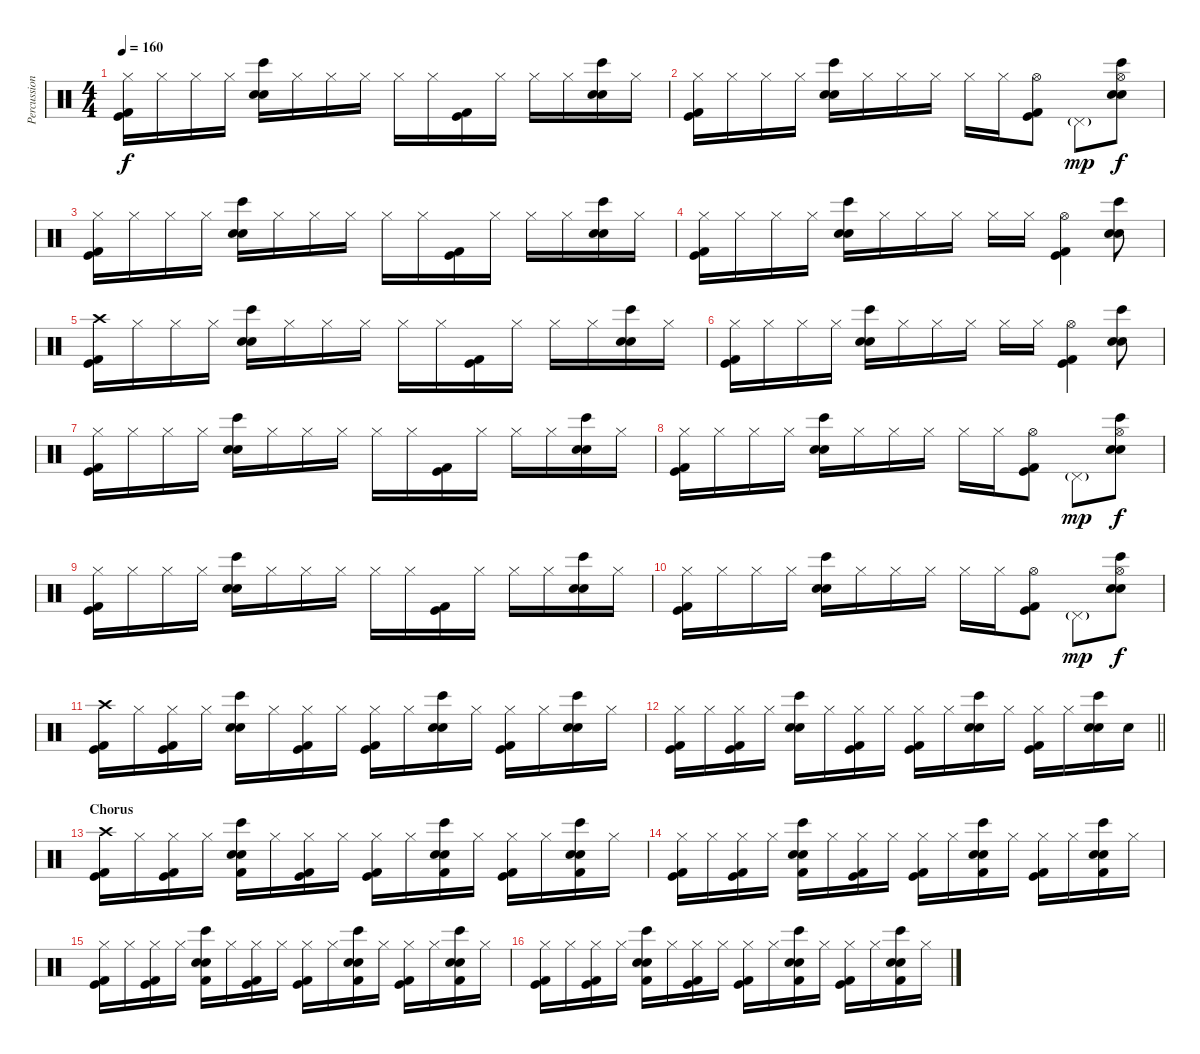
\track ("Percussion" "Percussion") {instrument percussion}
\staff {score}
\articulation defaults
\ts (4 4)
\tempo 160
\clef neutral
\ks c
("Hi-Hat (closed)" "Kick (hit)" "Kick (hit) 2").16{dy f} "Hi-Hat (closed)".16 "Hi-Hat (closed)".16 "Hi-Hat (closed)".16 ("Hand Clap (hit)" "Bongo High (hit)" "Electric Snare (hit)").16 "Hi-Hat (closed)".16 "Hi-Hat (closed)".16 "Hi-Hat (closed)".16 "Hi-Hat (closed)".16 "Hi-Hat (closed)".16 ("Kick (hit)" "Kick (hit) 2").16 "Hi-Hat (closed)".16 "Hi-Hat (closed)".16 "Hi-Hat (closed)".16 ("Hand Clap (hit)" "Bongo High (hit)" "Electric Snare (hit)").16 "Hi-Hat (closed)".16 |
("Hi-Hat (closed)" "Kick (hit)" "Kick (hit) 2").16 "Hi-Hat (closed)".16 "Hi-Hat (closed)".16 "Hi-Hat (closed)".16 ("Hand Clap (hit)" "Bongo High (hit)" "Electric Snare (hit)").16 "Hi-Hat (closed)".16 "Hi-Hat (closed)".16 "Hi-Hat (closed)".16 "Hi-Hat (closed)".16 "Hi-Hat (closed)".16 ("Hi-Hat (open)" "Kick (hit)" "Kick (hit) 2").8 "Pedal Hi-Hat (hit)"{g}.8{dy mp} ("Hi-Hat (open)" "Hand Clap (hit)" "Bongo High (hit)" "Electric Snare (hit)").8{dy f} |
("Hi-Hat (closed)" "Kick (hit)" "Kick (hit) 2").16 "Hi-Hat (closed)".16 "Hi-Hat (closed)".16 "Hi-Hat (closed)".16 ("Hand Clap (hit)" "Bongo High (hit)" "Electric Snare (hit)").16 "Hi-Hat (closed)".16 "Hi-Hat (closed)".16 "Hi-Hat (closed)".16 "Hi-Hat (closed)".16 "Hi-Hat (closed)".16 ("Kick (hit)" "Kick (hit) 2").16 "Hi-Hat (closed)".16 "Hi-Hat (closed)".16 "Hi-Hat (closed)".16 ("Hand Clap (hit)" "Bongo High (hit)" "Electric Snare (hit)").16 "Hi-Hat (closed)".16 |
("Hi-Hat (closed)" "Kick (hit)" "Kick (hit) 2").16 "Hi-Hat (closed)".16 "Hi-Hat (closed)".16 "Hi-Hat (closed)".16 ("Hand Clap (hit)" "Bongo High (hit)" "Electric Snare (hit)").16 "Hi-Hat (closed)".16 "Hi-Hat (closed)".16 "Hi-Hat (closed)".16 "Hi-Hat (closed)".16 "Hi-Hat (closed)".16 ("Hi-Hat (open)" "Kick (hit)" "Kick (hit) 2").4 ("Hand Clap (hit)" "Bongo High (hit)" "Electric Snare (hit)").8 |
("Crash high (hit)" "Kick (hit)" "Kick (hit) 2").16 "Hi-Hat (closed)".16 "Hi-Hat (closed)".16 "Hi-Hat (closed)".16 ("Hand Clap (hit)" "Bongo High (hit)" "Electric Snare (hit)").16 "Hi-Hat (closed)".16 "Hi-Hat (closed)".16 "Hi-Hat (closed)".16 "Hi-Hat (closed)".16 "Hi-Hat (closed)".16 ("Kick (hit)" "Kick (hit) 2").16 "Hi-Hat (closed)".16 "Hi-Hat (closed)".16 "Hi-Hat (closed)".16 ("Hand Clap (hit)" "Bongo High (hit)" "Electric Snare (hit)").16 "Hi-Hat (closed)".16 |
("Hi-Hat (closed)" "Kick (hit)" "Kick (hit) 2").16 "Hi-Hat (closed)".16 "Hi-Hat (closed)".16 "Hi-Hat (closed)".16 ("Hand Clap (hit)" "Bongo High (hit)" "Electric Snare (hit)").16 "Hi-Hat (closed)".16 "Hi-Hat (closed)".16 "Hi-Hat (closed)".16 "Hi-Hat (closed)".16 "Hi-Hat (closed)".16 ("Hi-Hat (open)" "Kick (hit)" "Kick (hit) 2").4 ("Hand Clap (hit)" "Bongo High (hit)" "Electric Snare (hit)").8 |
("Hi-Hat (closed)" "Kick (hit)" "Kick (hit) 2").16 "Hi-Hat (closed)".16 "Hi-Hat (closed)".16 "Hi-Hat (closed)".16 ("Hand Clap (hit)" "Bongo High (hit)" "Electric Snare (hit)").16 "Hi-Hat (closed)".16 "Hi-Hat (closed)".16 "Hi-Hat (closed)".16 "Hi-Hat (closed)".16 "Hi-Hat (closed)".16 ("Kick (hit)" "Kick (hit) 2").16 "Hi-Hat (closed)".16 "Hi-Hat (closed)".16 "Hi-Hat (closed)".16 ("Hand Clap (hit)" "Bongo High (hit)" "Electric Snare (hit)").16 "Hi-Hat (closed)".16 |
("Hi-Hat (closed)" "Kick (hit)" "Kick (hit) 2").16 "Hi-Hat (closed)".16 "Hi-Hat (closed)".16 "Hi-Hat (closed)".16 ("Hand Clap (hit)" "Bongo High (hit)" "Electric Snare (hit)").16 "Hi-Hat (closed)".16 "Hi-Hat (closed)".16 "Hi-Hat (closed)".16 "Hi-Hat (closed)".16 "Hi-Hat (closed)".16 ("Hi-Hat (open)" "Kick (hit)" "Kick (hit) 2").8 "Pedal Hi-Hat (hit)"{g}.8{dy mp} ("Hi-Hat (open)" "Hand Clap (hit)" "Bongo High (hit)" "Electric Snare (hit)").8{dy f} |
("Hi-Hat (closed)" "Kick (hit)" "Kick (hit) 2").16 "Hi-Hat (closed)".16 "Hi-Hat (closed)".16 "Hi-Hat (closed)".16 ("Hand Clap (hit)" "Bongo High (hit)" "Electric Snare (hit)").16 "Hi-Hat (closed)".16 "Hi-Hat (closed)".16 "Hi-Hat (closed)".16 "Hi-Hat (closed)".16 "Hi-Hat (closed)".16 ("Kick (hit)" "Kick (hit) 2").16 "Hi-Hat (closed)".16 "Hi-Hat (closed)".16 "Hi-Hat (closed)".16 ("Hand Clap (hit)" "Bongo High (hit)" "Electric Snare (hit)").16 "Hi-Hat (closed)".16 |
("Hi-Hat (closed)" "Kick (hit)" "Kick (hit) 2").16 "Hi-Hat (closed)".16 "Hi-Hat (closed)".16 "Hi-Hat (closed)".16 ("Hand Clap (hit)" "Bongo High (hit)" "Electric Snare (hit)").16 "Hi-Hat (closed)".16 "Hi-Hat (closed)".16 "Hi-Hat (closed)".16 "Hi-Hat (closed)".16 "Hi-Hat (closed)".16 ("Hi-Hat (open)" "Kick (hit)" "Kick (hit) 2").8 "Pedal Hi-Hat (hit)"{g}.8{dy mp} ("Hi-Hat (open)" "Hand Clap (hit)" "Bongo High (hit)" "Electric Snare (hit)").8{dy f} |
("Crash high (hit)" "Kick (hit)" "Kick (hit) 2").16 "Hi-Hat (closed)".16 ("Hi-Hat (closed)" "Kick (hit)" "Kick (hit) 2").16 "Hi-Hat (closed)".16 ("Hand Clap (hit)" "Bongo High (hit)" "Electric Snare (hit)").16 "Hi-Hat (closed)".16 ("Hi-Hat (closed)" "Kick (hit)" "Kick (hit) 2").16 "Hi-Hat (closed)".16 ("Hi-Hat (closed)" "Kick (hit)" "Kick (hit) 2").16 "Hi-Hat (closed)".16 ("Hand Clap (hit)" "Bongo High (hit)" "Electric Snare (hit)").16 "Hi-Hat (closed)".16 ("Hi-Hat (closed)" "Kick (hit)" "Kick (hit) 2").16 "Hi-Hat (closed)".16 ("Hand Clap (hit)" "Bongo High (hit)" "Electric Snare (hit)").16 "Hi-Hat (closed)".16 |
\barLineRight lightlight
("Hi-Hat (closed)" "Kick (hit)" "Kick (hit) 2").16 "Hi-Hat (closed)".16 ("Hi-Hat (closed)" "Kick (hit)" "Kick (hit) 2").16 "Hi-Hat (closed)".16 ("Hand Clap (hit)" "Bongo High (hit)" "Electric Snare (hit)").16 "Hi-Hat (closed)".16 ("Hi-Hat (closed)" "Kick (hit)" "Kick (hit) 2").16 "Hi-Hat (closed)".16 ("Hi-Hat (closed)" "Kick (hit)" "Kick (hit) 2").16 "Hi-Hat (closed)".16 ("Hand Clap (hit)" "Bongo High (hit)" "Electric Snare (hit)").16 "Hi-Hat (closed)".16 ("Hi-Hat (closed)" "Kick (hit)" "Kick (hit) 2").16 "Hi-Hat (closed)".16 ("Hand Clap (hit)" "Bongo High (hit)" "Electric Snare (hit)").16 "Electric Snare (hit)".16 |
\section ("" "Chorus")
("Crash high (hit)" "Kick (hit)" "Kick (hit) 2").16 "Hi-Hat (closed)".16 ("Hi-Hat (closed)" "Kick (hit)" "Kick (hit) 2").16 "Hi-Hat (closed)".16 ("Hand Clap (hit)" "Bongo High (hit)" "Electric Snare (hit)" "Kick (hit) 2").16 "Hi-Hat (closed)".16 ("Hi-Hat (closed)" "Kick (hit)" "Kick (hit) 2").16 "Hi-Hat (closed)".16 ("Hi-Hat (closed)" "Kick (hit)" "Kick (hit) 2").16 "Hi-Hat (closed)".16 ("Hand Clap (hit)" "Bongo High (hit)" "Electric Snare (hit)" "Kick (hit) 2").16 "Hi-Hat (closed)".16 ("Hi-Hat (closed)" "Kick (hit)" "Kick (hit) 2").16 "Hi-Hat (closed)".16 ("Hand Clap (hit)" "Bongo High (hit)" "Electric Snare (hit)" "Kick (hit) 2").16 "Hi-Hat (closed)".16 |
("Hi-Hat (closed)" "Kick (hit)" "Kick (hit) 2").16 "Hi-Hat (closed)".16 ("Hi-Hat (closed)" "Kick (hit)" "Kick (hit) 2").16 "Hi-Hat (closed)".16 ("Hand Clap (hit)" "Bongo High (hit)" "Electric Snare (hit)" "Kick (hit) 2").16 "Hi-Hat (closed)".16 ("Hi-Hat (closed)" "Kick (hit)" "Kick (hit) 2").16 "Hi-Hat (closed)".16 ("Hi-Hat (closed)" "Kick (hit)" "Kick (hit) 2").16 "Hi-Hat (closed)".16 ("Hand Clap (hit)" "Bongo High (hit)" "Electric Snare (hit)" "Kick (hit) 2").16 "Hi-Hat (closed)".16 ("Hi-Hat (closed)" "Kick (hit)" "Kick (hit) 2").16 "Hi-Hat (closed)".16 ("Hand Clap (hit)" "Bongo High (hit)" "Electric Snare (hit)" "Kick (hit) 2").16 "Hi-Hat (closed)".16 |
("Hi-Hat (closed)" "Kick (hit)" "Kick (hit) 2").16 "Hi-Hat (closed)".16 ("Hi-Hat (closed)" "Kick (hit)" "Kick (hit) 2").16 "Hi-Hat (closed)".16 ("Hand Clap (hit)" "Bongo High (hit)" "Electric Snare (hit)" "Kick (hit) 2").16 "Hi-Hat (closed)".16 ("Hi-Hat (closed)" "Kick (hit)" "Kick (hit) 2").16 "Hi-Hat (closed)".16 ("Hi-Hat (closed)" "Kick (hit)" "Kick (hit) 2").16 "Hi-Hat (closed)".16 ("Hand Clap (hit)" "Bongo High (hit)" "Electric Snare (hit)" "Kick (hit) 2").16 "Hi-Hat (closed)".16 ("Hi-Hat (closed)" "Kick (hit)" "Kick (hit) 2").16 "Hi-Hat (closed)".16 ("Hand Clap (hit)" "Bongo High (hit)" "Electric Snare (hit)" "Kick (hit) 2").16 "Hi-Hat (closed)".16 |
("Hi-Hat (closed)" "Kick (hit)" "Kick (hit) 2").16 "Hi-Hat (closed)".16 ("Hi-Hat (closed)" "Kick (hit)" "Kick (hit) 2").16 "Hi-Hat (closed)".16 ("Hand Clap (hit)" "Bongo High (hit)" "Electric Snare (hit)" "Kick (hit) 2").16 "Hi-Hat (closed)".16 ("Hi-Hat (closed)" "Kick (hit)" "Kick (hit) 2").16 "Hi-Hat (closed)".16 ("Hi-Hat (closed)" "Kick (hit)" "Kick (hit) 2").16 "Hi-Hat (closed)".16 ("Hand Clap (hit)" "Bongo High (hit)" "Electric Snare (hit)" "Kick (hit) 2").16 "Hi-Hat (closed)".16 ("Hi-Hat (closed)" "Kick (hit)" "Kick (hit) 2").16 "Hi-Hat (closed)".16 ("Hand Clap (hit)" "Bongo High (hit)" "Electric Snare (hit)" "Kick (hit) 2").16 "Hi-Hat (closed)".16
